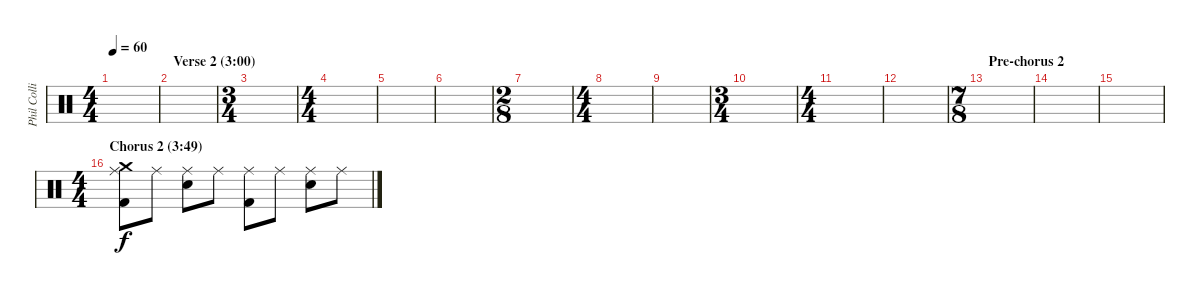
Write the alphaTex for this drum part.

\track ("Phil Collins (drums)" "Phil Colli") {instrument percussion}
\staff {score}
\articulation defaults
\ts (4 4)
\tempo 60
\clef neutral
\ks c
|
\section ("" "Verse 2 (3:00)")
|
\ts (3 4)
|
\ts (4 4)
|
|
|
\ts (2 8)
|
\ts (4 4)
|
|
\ts (3 4)
|
\ts (4 4)
|
|
\ts (7 8)
\section ("" "Pre-chorus 2")
|
|
|
\ts (4 4)
\section ("" "Chorus 2 (3:49)")
("Ride (middle)" "Crash medium (hit)" "Kick (hit) 2").8 "Ride (middle)".8 ("Ride (middle)" "Electric Snare (hit)").8 "Ride (middle)".8 ("Ride (middle)" "Kick (hit) 2").8 "Ride (middle)".8 ("Ride (middle)" "Electric Snare (hit)").8 "Ride (middle)".8
